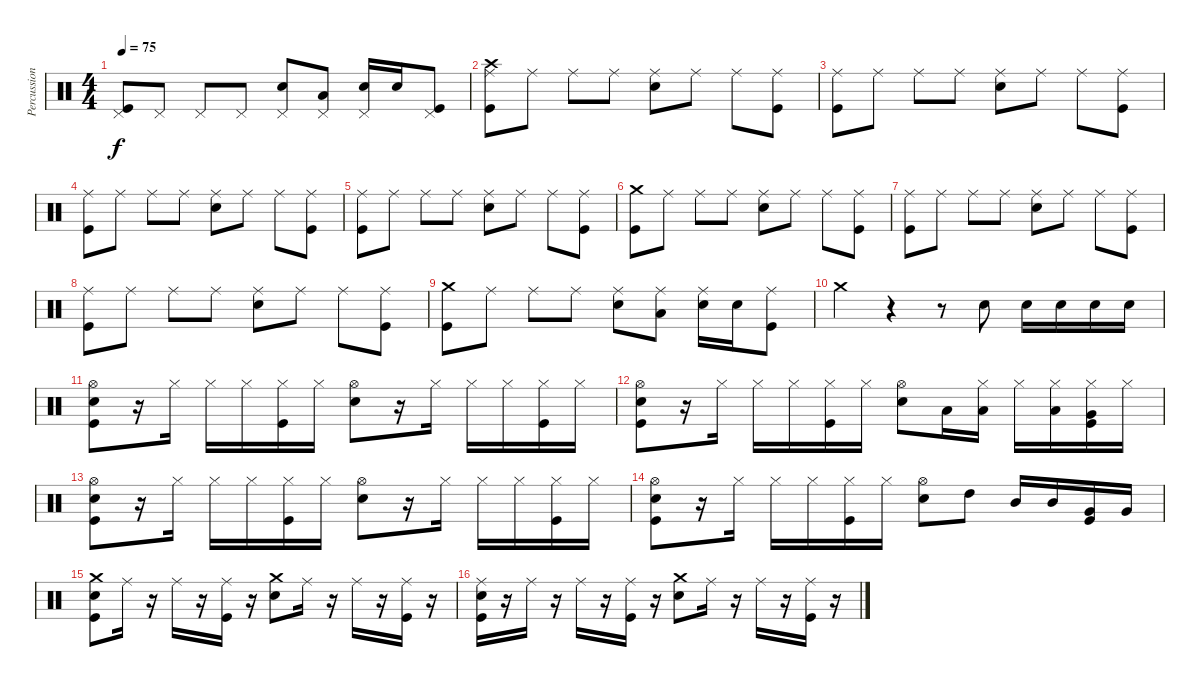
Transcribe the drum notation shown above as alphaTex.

\track ("Percussion" "Percussion") {instrument percussion}
\staff {score}
\articulation defaults
\ts (4 4)
\tempo 75
\clef neutral
\ks c
("Pedal Hi-Hat (hit)" "Kick (hit)").8{dy f} "Pedal Hi-Hat (hit)".8 "Pedal Hi-Hat (hit)".8 "Pedal Hi-Hat (hit)".8 ("Snare (hit) 2" "Pedal Hi-Hat (hit)").8 ("Low Floor Tom (hit)" "Pedal Hi-Hat (hit)").8 ("Snare (hit) 2" "Pedal Hi-Hat (hit)").16 "Snare (hit) 2".16 ("Kick (hit)" "Pedal Hi-Hat (hit)").8 |
("Crash high (hit)" "Kick (hit)" "Ride (middle)").8 "Ride (middle)".8 "Ride (middle)".8 "Ride (middle)".8 ("Snare (hit) 2" "Ride (middle)").8 "Ride (middle)".8 "Ride (middle)".8 ("Kick (hit)" "Ride (middle)").8 |
("Ride (middle)" "Kick (hit)").8 "Ride (middle)".8 "Ride (middle)".8 "Ride (middle)".8 ("Snare (hit) 2" "Ride (middle)").8 "Ride (middle)".8 "Ride (middle)".8 ("Kick (hit)" "Ride (middle)").8 |
("Ride (middle)" "Kick (hit)").8 "Ride (middle)".8 "Ride (middle)".8 "Ride (middle)".8 ("Snare (hit) 2" "Ride (middle)").8 "Ride (middle)".8 "Ride (middle)".8 ("Kick (hit)" "Ride (middle)").8 |
("Ride (middle)" "Kick (hit)").8 "Ride (middle)".8 "Ride (middle)".8 "Ride (middle)".8 ("Snare (hit) 2" "Ride (middle)").8 "Ride (middle)".8 "Ride (middle)".8 ("Kick (hit)" "Ride (middle)").8 |
("Crash medium (hit)" "Kick (hit)").8 "Ride (middle)".8 "Ride (middle)".8 "Ride (middle)".8 ("Snare (hit) 2" "Ride (middle)").8 "Ride (middle)".8 "Ride (middle)".8 ("Kick (hit)" "Ride (middle)").8 |
("Ride (middle)" "Kick (hit)").8 "Ride (middle)".8 "Ride (middle)".8 "Ride (middle)".8 ("Snare (hit) 2" "Ride (middle)").8 "Ride (middle)".8 "Ride (middle)".8 ("Kick (hit)" "Ride (middle)").8 |
("Ride (middle)" "Kick (hit)").8 "Ride (middle)".8 "Ride (middle)".8 "Ride (middle)".8 ("Snare (hit) 2" "Ride (middle)").8 "Ride (middle)".8 "Ride (middle)".8 ("Kick (hit)" "Ride (middle)").8 |
("Crash medium (hit)" "Kick (hit)").8 "Ride (middle)".8 "Ride (middle)".8 "Ride (middle)".8 ("Snare (hit) 2" "Ride (middle)").8 ("Low Floor Tom (hit)" "Ride (middle)").8 ("Snare (hit) 2" "Ride (middle)").16 "Snare (hit) 2".16 ("Kick (hit)" "Ride (middle)").8 |
"Crash medium (hit)".4 r.4 r.8 "Snare (hit) 2".8 "Snare (hit) 2".16 "Snare (hit) 2".16 "Snare (hit) 2".16 "Snare (hit) 2".16 |
("Hi-Hat (open)" "Kick (hit)" "Snare (hit) 2").8 r.16 "Hi-Hat (closed)".16 "Hi-Hat (closed)".16 "Hi-Hat (closed)".16 ("Kick (hit)" "Hi-Hat (closed)").16 "Hi-Hat (closed)".16 ("Snare (hit) 2" "Hi-Hat (open)").8 r.16 "Hi-Hat (closed)".16 "Hi-Hat (closed)".16 "Hi-Hat (closed)".16 ("Kick (hit)" "Hi-Hat (closed)").16 "Hi-Hat (closed)".16 |
("Hi-Hat (open)" "Kick (hit)" "Snare (hit) 2").8 r.16 "Hi-Hat (closed)".16 "Hi-Hat (closed)".16 "Hi-Hat (closed)".16 ("Kick (hit)" "Hi-Hat (closed)").16 "Hi-Hat (closed)".16 ("Snare (hit) 2" "Hi-Hat (open)").8 "Low Tom (hit)".16 ("Low Tom (hit)" "Hi-Hat (closed)").16 "Hi-Hat (closed)".16 ("Low Tom (hit)" "Hi-Hat (closed)").16 ("Very Low Tom (hit)" "Kick (hit)" "Hi-Hat (closed)").16 "Hi-Hat (closed)".16 |
("Hi-Hat (open)" "Kick (hit)" "Snare (hit) 2").8 r.16 "Hi-Hat (closed)".16 "Hi-Hat (closed)".16 "Hi-Hat (closed)".16 ("Kick (hit)" "Hi-Hat (closed)").16 "Hi-Hat (closed)".16 ("Snare (hit) 2" "Hi-Hat (open)").8 r.16 "Hi-Hat (closed)".16 "Hi-Hat (closed)".16 "Hi-Hat (closed)".16 ("Kick (hit)" "Hi-Hat (closed)").16 "Hi-Hat (closed)".16 |
("Hi-Hat (open)" "Kick (hit)" "Snare (hit) 2").8 r.16 "Hi-Hat (closed)".16 "Hi-Hat (closed)".16 "Hi-Hat (closed)".16 ("Kick (hit)" "Hi-Hat (closed)").16 "Hi-Hat (closed)".16 ("Snare (hit) 2" "Hi-Hat (open)").8 "High Tom (hit)".8 "Mid Tom (hit)".16 "Mid Tom (hit)".16 ("Very Low Tom (hit)" "Kick (hit)").16 "Very Low Tom (hit)".16 |
("Crash medium (hit)" "Kick (hit)" "Snare (hit) 2").8 "Ride (middle)".16 r.16 "Ride (middle)".16 r.16 ("Kick (hit)" "Ride (middle)").16 r.16 ("Snare (hit) 2" "Crash medium (hit)").8 "Ride (middle)".16 r.16 "Ride (middle)".16 r.16 ("Kick (hit)" "Ride (middle)").16 r.16 |
("Snare (hit) 2" "Ride (middle)" "Kick (hit)").16 r.16 "Ride (middle)".16 r.16 "Ride (middle)".16 r.16 ("Kick (hit)" "Ride (middle)").16 r.16 ("Snare (hit) 2" "Crash medium (hit)").8 "Ride (middle)".16 r.16 "Ride (middle)".16 r.16 ("Kick (hit)" "Ride (middle)").16 r.16
